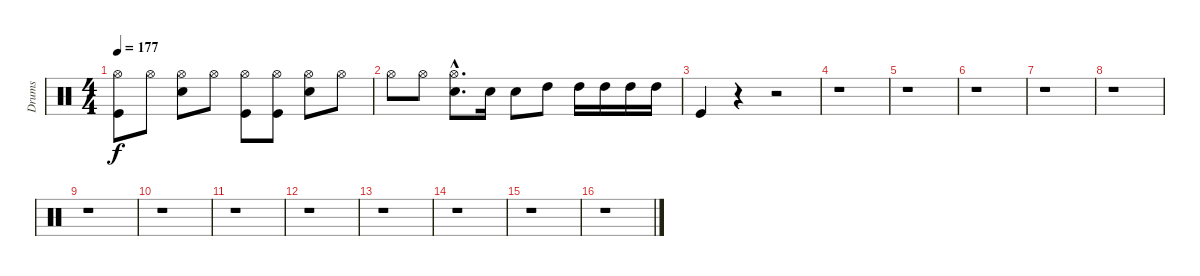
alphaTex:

\track ("Drums" "Drums") {instrument percussion}
\staff {score}
\articulation defaults
\ts (4 4)
\tempo 177
\clef neutral
\ks c
("Hi-Hat (open)" "Kick (hit)").8{dy f} "Hi-Hat (open)".8 ("Hi-Hat (open)" "Snare (hit) 2").8 "Hi-Hat (open)".8 ("Hi-Hat (open)" "Kick (hit)").8 ("Hi-Hat (open)" "Kick (hit)").8 ("Hi-Hat (open)" "Snare (hit) 2").8 "Hi-Hat (open)".8 |
"Hi-Hat (open)".8 "Hi-Hat (open)".8 ("Hi-Hat (open)"{hac} "Snare (hit) 2"{hac}).8{d} "Snare (hit) 2".16 "Snare (hit) 2".8 "High Tom (hit)".8 "High Tom (hit)".16 "High Tom (hit)".16 "High Tom (hit)".16 "High Tom (hit)".16 |
"Kick (hit)".4 r.4 r.2 |
r.1 |
r.1 |
r.1 |
r.1 |
r.1 |
r.1 |
r.1 |
r.1 |
r.1 |
r.1 |
r.1 |
r.1 |
r.1
